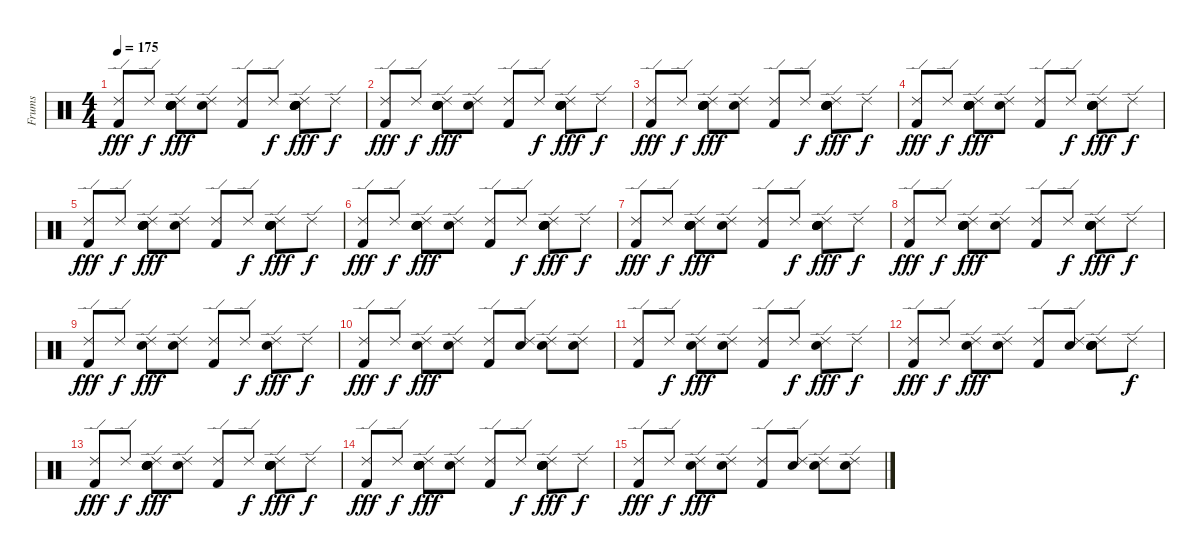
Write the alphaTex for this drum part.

\track ("Frums" "Frums") {instrument percussion}
\staff {score}
\articulation defaults
\ts (4 4)
\tempo 175
\clef neutral
\ks c
("Ride (edge) 2" "Kick (hit) 2").8{dy fff} "Ride (edge) 2".8{dy f} ("Ride (edge) 2" "Electric Snare (hit)" "Hand Clap (hit)" "Hand Clap (hit)" "Hand Clap (hit)").8{dy fff} ("Ride (edge) 2" "Electric Snare (hit)").8 ("Ride (edge) 2" "Kick (hit) 2").8 "Ride (edge) 2".8{dy f} ("Ride (edge) 2" "Electric Snare (hit)" "Hand Clap (hit)" "Hand Clap (hit)" "Hand Clap (hit)").8{dy fff} "Ride (edge) 2".8{dy f} |
("Ride (edge) 2" "Kick (hit) 2").8{dy fff} "Ride (edge) 2".8{dy f} ("Ride (edge) 2" "Electric Snare (hit)" "Hand Clap (hit)" "Hand Clap (hit)" "Hand Clap (hit)").8{dy fff} ("Ride (edge) 2" "Electric Snare (hit)").8 ("Ride (edge) 2" "Kick (hit) 2").8 "Ride (edge) 2".8{dy f} ("Ride (edge) 2" "Electric Snare (hit)" "Hand Clap (hit)" "Hand Clap (hit)" "Hand Clap (hit)").8{dy fff} "Ride (edge) 2".8{dy f} |
("Ride (edge) 2" "Kick (hit) 2").8{dy fff} "Ride (edge) 2".8{dy f} ("Ride (edge) 2" "Electric Snare (hit)" "Hand Clap (hit)" "Hand Clap (hit)" "Hand Clap (hit)").8{dy fff} ("Ride (edge) 2" "Electric Snare (hit)").8 ("Ride (edge) 2" "Kick (hit) 2").8 "Ride (edge) 2".8{dy f} ("Ride (edge) 2" "Electric Snare (hit)" "Hand Clap (hit)" "Hand Clap (hit)" "Hand Clap (hit)").8{dy fff} "Ride (edge) 2".8{dy f} |
("Ride (edge) 2" "Kick (hit) 2").8{dy fff} "Ride (edge) 2".8{dy f} ("Ride (edge) 2" "Electric Snare (hit)" "Hand Clap (hit)" "Hand Clap (hit)" "Hand Clap (hit)").8{dy fff} ("Ride (edge) 2" "Electric Snare (hit)").8 ("Ride (edge) 2" "Kick (hit) 2").8 "Ride (edge) 2".8{dy f} ("Ride (edge) 2" "Electric Snare (hit)" "Hand Clap (hit)" "Hand Clap (hit)" "Hand Clap (hit)").8{dy fff} "Ride (edge) 2".8{dy f} |
("Ride (edge) 2" "Kick (hit) 2").8{dy fff} "Ride (edge) 2".8{dy f} ("Ride (edge) 2" "Electric Snare (hit)" "Hand Clap (hit)" "Hand Clap (hit)" "Hand Clap (hit)").8{dy fff} ("Ride (edge) 2" "Electric Snare (hit)").8 ("Ride (edge) 2" "Kick (hit) 2").8 "Ride (edge) 2".8{dy f} ("Ride (edge) 2" "Electric Snare (hit)" "Hand Clap (hit)" "Hand Clap (hit)" "Hand Clap (hit)").8{dy fff} "Ride (edge) 2".8{dy f} |
("Ride (edge) 2" "Kick (hit) 2").8{dy fff} "Ride (edge) 2".8{dy f} ("Ride (edge) 2" "Electric Snare (hit)" "Hand Clap (hit)" "Hand Clap (hit)" "Hand Clap (hit)").8{dy fff} ("Ride (edge) 2" "Electric Snare (hit)").8 ("Ride (edge) 2" "Kick (hit) 2").8 "Ride (edge) 2".8{dy f} ("Ride (edge) 2" "Electric Snare (hit)" "Hand Clap (hit)" "Hand Clap (hit)" "Hand Clap (hit)").8{dy fff} "Ride (edge) 2".8{dy f} |
("Ride (edge) 2" "Kick (hit) 2").8{dy fff} "Ride (edge) 2".8{dy f} ("Ride (edge) 2" "Electric Snare (hit)" "Hand Clap (hit)" "Hand Clap (hit)" "Hand Clap (hit)").8{dy fff} ("Ride (edge) 2" "Electric Snare (hit)").8 ("Ride (edge) 2" "Kick (hit) 2").8 "Ride (edge) 2".8{dy f} ("Ride (edge) 2" "Electric Snare (hit)" "Hand Clap (hit)" "Hand Clap (hit)" "Hand Clap (hit)").8{dy fff} "Ride (edge) 2".8{dy f} |
("Ride (edge) 2" "Kick (hit) 2").8{dy fff} "Ride (edge) 2".8{dy f} ("Ride (edge) 2" "Electric Snare (hit)" "Hand Clap (hit)" "Hand Clap (hit)" "Hand Clap (hit)").8{dy fff} ("Ride (edge) 2" "Electric Snare (hit)").8 ("Ride (edge) 2" "Kick (hit) 2").8 "Ride (edge) 2".8{dy f} ("Ride (edge) 2" "Electric Snare (hit)" "Hand Clap (hit)" "Hand Clap (hit)" "Hand Clap (hit)").8{dy fff} "Ride (edge) 2".8{dy f} |
("Ride (edge) 2" "Kick (hit) 2").8{dy fff} "Ride (edge) 2".8{dy f} ("Ride (edge) 2" "Electric Snare (hit)").8{dy fff} ("Ride (edge) 2" "Electric Snare (hit)").8 ("Ride (edge) 2" "Kick (hit) 2").8 "Ride (edge) 2".8{dy f} ("Ride (edge) 2" "Electric Snare (hit)").8{dy fff} "Ride (edge) 2".8{dy f} |
("Ride (edge) 2" "Kick (hit) 2").8{dy fff} "Ride (edge) 2".8{dy f} ("Ride (edge) 2" "Electric Snare (hit)").8{dy fff} ("Ride (edge) 2" "Electric Snare (hit)").8 ("Ride (edge) 2" "Kick (hit) 2").8 ("Ride (edge) 2" "Electric Snare (hit)").8 ("Ride (edge) 2" "Electric Snare (hit)").8 ("Ride (edge) 2" "Electric Snare (hit)").8 |
("Ride (edge) 2" "Kick (hit) 2").8 "Ride (edge) 2".8{dy f} ("Ride (edge) 2" "Electric Snare (hit)").8{dy fff} ("Ride (edge) 2" "Electric Snare (hit)").8 ("Ride (edge) 2" "Kick (hit) 2").8 "Ride (edge) 2".8{dy f} ("Ride (edge) 2" "Electric Snare (hit)").8{dy fff} "Ride (edge) 2".8{dy f} |
("Ride (edge) 2" "Kick (hit) 2").8{dy fff} "Ride (edge) 2".8{dy f} ("Ride (edge) 2" "Electric Snare (hit)").8{dy fff} ("Ride (edge) 2" "Electric Snare (hit)").8 ("Ride (edge) 2" "Kick (hit) 2").8 ("Ride (edge) 2" "Electric Snare (hit)").8 ("Ride (edge) 2" "Electric Snare (hit)" "Hand Clap (hit)" "Hand Clap (hit)" "Hand Clap (hit)").8 "Ride (edge) 2".8{dy f} |
("Ride (edge) 2" "Kick (hit) 2").8{dy fff} "Ride (edge) 2".8{dy f} ("Ride (edge) 2" "Electric Snare (hit)" "Hand Clap (hit)" "Hand Clap (hit)" "Hand Clap (hit)").8{dy fff} ("Ride (edge) 2" "Electric Snare (hit)").8 ("Ride (edge) 2" "Kick (hit) 2").8 "Ride (edge) 2".8{dy f} ("Ride (edge) 2" "Electric Snare (hit)" "Hand Clap (hit)" "Hand Clap (hit)" "Hand Clap (hit)").8{dy fff volume 11} "Ride (edge) 2".8{dy f} |
("Ride (edge) 2" "Kick (hit) 2").8{dy fff} "Ride (edge) 2".8{dy f} ("Ride (edge) 2" "Electric Snare (hit)" "Hand Clap (hit)" "Hand Clap (hit)" "Hand Clap (hit)").8{dy fff} ("Ride (edge) 2" "Electric Snare (hit)").8 ("Ride (edge) 2" "Kick (hit) 2").8 "Ride (edge) 2".8{dy f} ("Ride (edge) 2" "Electric Snare (hit)" "Hand Clap (hit)" "Hand Clap (hit)" "Hand Clap (hit)").8{dy fff volume 3} "Ride (edge) 2".8{dy f} |
("Ride (edge) 2" "Kick (hit) 2").8{dy fff} "Ride (edge) 2".8{dy f volume 2} ("Ride (edge) 2" "Electric Snare (hit)").8{dy fff} ("Ride (edge) 2" "Electric Snare (hit)").8 ("Ride (edge) 2" "Kick (hit) 2").8{volume 1} ("Ride (edge) 2" "Electric Snare (hit)").8 ("Ride (edge) 2" "Electric Snare (hit)").8{volume 1} ("Ride (edge) 2" "Electric Snare (hit)").8
